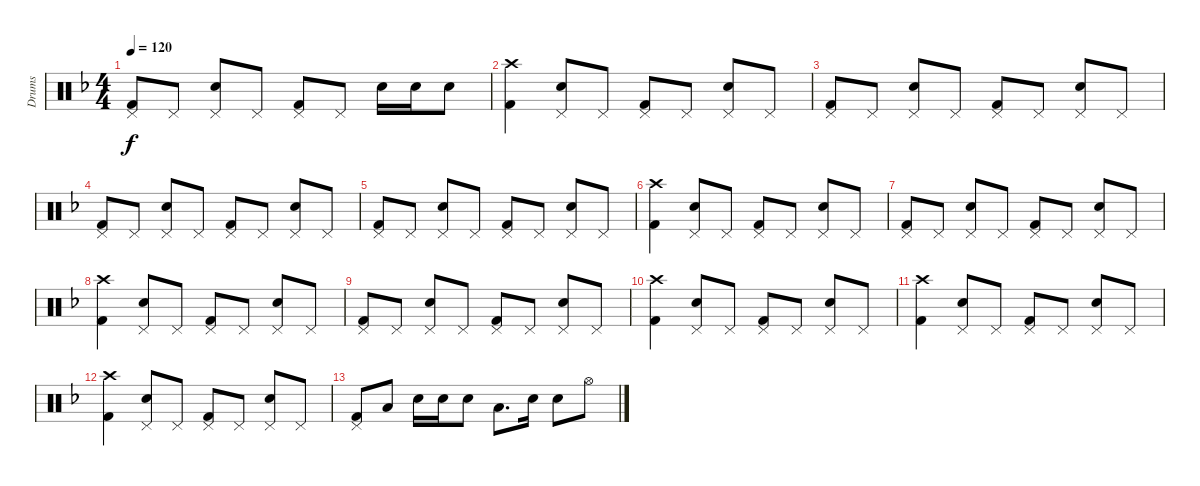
\track ("Drums" "Drums") {instrument percussion}
\staff {score}
\articulation defaults
\ts (4 4)
\tempo 120
\clef neutral
\ks f
("Pedal Hi-Hat (hit)" "Kick (hit) 2").8{dy f} "Pedal Hi-Hat (hit)".8 ("Pedal Hi-Hat (hit)" "Electric Snare (hit)").8 "Pedal Hi-Hat (hit)".8 ("Pedal Hi-Hat (hit)" "Kick (hit) 2").8 "Pedal Hi-Hat (hit)".8 "Electric Snare (hit)".16 "Electric Snare (hit)".16 "Electric Snare (hit)".8 |
("Crash high (hit)" "Kick (hit) 2").4 ("Pedal Hi-Hat (hit)" "Electric Snare (hit)").8 "Pedal Hi-Hat (hit)".8 ("Pedal Hi-Hat (hit)" "Kick (hit) 2").8 "Pedal Hi-Hat (hit)".8 ("Pedal Hi-Hat (hit)" "Electric Snare (hit)").8 "Pedal Hi-Hat (hit)".8 |
("Pedal Hi-Hat (hit)" "Kick (hit) 2").8 "Pedal Hi-Hat (hit)".8 ("Pedal Hi-Hat (hit)" "Electric Snare (hit)").8 "Pedal Hi-Hat (hit)".8 ("Pedal Hi-Hat (hit)" "Kick (hit) 2").8 "Pedal Hi-Hat (hit)".8 ("Pedal Hi-Hat (hit)" "Electric Snare (hit)").8 "Pedal Hi-Hat (hit)".8 |
("Pedal Hi-Hat (hit)" "Kick (hit) 2").8 "Pedal Hi-Hat (hit)".8 ("Pedal Hi-Hat (hit)" "Electric Snare (hit)").8 "Pedal Hi-Hat (hit)".8 ("Pedal Hi-Hat (hit)" "Kick (hit) 2").8 "Pedal Hi-Hat (hit)".8 ("Pedal Hi-Hat (hit)" "Electric Snare (hit)").8 "Pedal Hi-Hat (hit)".8 |
("Pedal Hi-Hat (hit)" "Kick (hit) 2").8 "Pedal Hi-Hat (hit)".8 ("Pedal Hi-Hat (hit)" "Electric Snare (hit)").8 "Pedal Hi-Hat (hit)".8 ("Pedal Hi-Hat (hit)" "Kick (hit) 2").8 "Pedal Hi-Hat (hit)".8 ("Pedal Hi-Hat (hit)" "Electric Snare (hit)").8 "Pedal Hi-Hat (hit)".8 |
("Crash high (hit)" "Kick (hit) 2").4 ("Pedal Hi-Hat (hit)" "Electric Snare (hit)").8 "Pedal Hi-Hat (hit)".8 ("Pedal Hi-Hat (hit)" "Kick (hit) 2").8 "Pedal Hi-Hat (hit)".8 ("Pedal Hi-Hat (hit)" "Electric Snare (hit)").8 "Pedal Hi-Hat (hit)".8 |
("Pedal Hi-Hat (hit)" "Kick (hit) 2").8 "Pedal Hi-Hat (hit)".8 ("Pedal Hi-Hat (hit)" "Electric Snare (hit)").8 "Pedal Hi-Hat (hit)".8 ("Pedal Hi-Hat (hit)" "Kick (hit) 2").8 "Pedal Hi-Hat (hit)".8 ("Pedal Hi-Hat (hit)" "Electric Snare (hit)").8 "Pedal Hi-Hat (hit)".8 |
("Crash high (hit)" "Kick (hit) 2").4 ("Pedal Hi-Hat (hit)" "Electric Snare (hit)").8 "Pedal Hi-Hat (hit)".8 ("Pedal Hi-Hat (hit)" "Kick (hit) 2").8 "Pedal Hi-Hat (hit)".8 ("Pedal Hi-Hat (hit)" "Electric Snare (hit)").8 "Pedal Hi-Hat (hit)".8 |
("Pedal Hi-Hat (hit)" "Kick (hit) 2").8 "Pedal Hi-Hat (hit)".8 ("Pedal Hi-Hat (hit)" "Electric Snare (hit)").8 "Pedal Hi-Hat (hit)".8 ("Pedal Hi-Hat (hit)" "Kick (hit) 2").8 "Pedal Hi-Hat (hit)".8 ("Pedal Hi-Hat (hit)" "Electric Snare (hit)").8 "Pedal Hi-Hat (hit)".8 |
("Crash high (hit)" "Kick (hit) 2").4 ("Pedal Hi-Hat (hit)" "Electric Snare (hit)").8 "Pedal Hi-Hat (hit)".8 ("Pedal Hi-Hat (hit)" "Kick (hit) 2").8 "Pedal Hi-Hat (hit)".8 ("Pedal Hi-Hat (hit)" "Electric Snare (hit)").8 "Pedal Hi-Hat (hit)".8 |
("Crash high (hit)" "Kick (hit) 2").4 ("Pedal Hi-Hat (hit)" "Electric Snare (hit)").8 "Pedal Hi-Hat (hit)".8 ("Pedal Hi-Hat (hit)" "Kick (hit) 2").8 "Pedal Hi-Hat (hit)".8 ("Pedal Hi-Hat (hit)" "Electric Snare (hit)").8 "Pedal Hi-Hat (hit)".8 |
("Crash high (hit)" "Kick (hit) 2").4 ("Pedal Hi-Hat (hit)" "Electric Snare (hit)").8 "Pedal Hi-Hat (hit)".8 ("Pedal Hi-Hat (hit)" "Kick (hit) 2").8 "Pedal Hi-Hat (hit)".8 ("Pedal Hi-Hat (hit)" "Electric Snare (hit)").8 "Pedal Hi-Hat (hit)".8 |
("Pedal Hi-Hat (hit)" "Kick (hit) 2").8 "Low Tom (hit)".8 "Electric Snare (hit)".16 "Electric Snare (hit)".16 "Electric Snare (hit)".8 "Low Floor Tom (hit)".8{d} "Electric Snare (hit)".16 "Electric Snare (hit)".8 "Hi-Hat (open)".8
